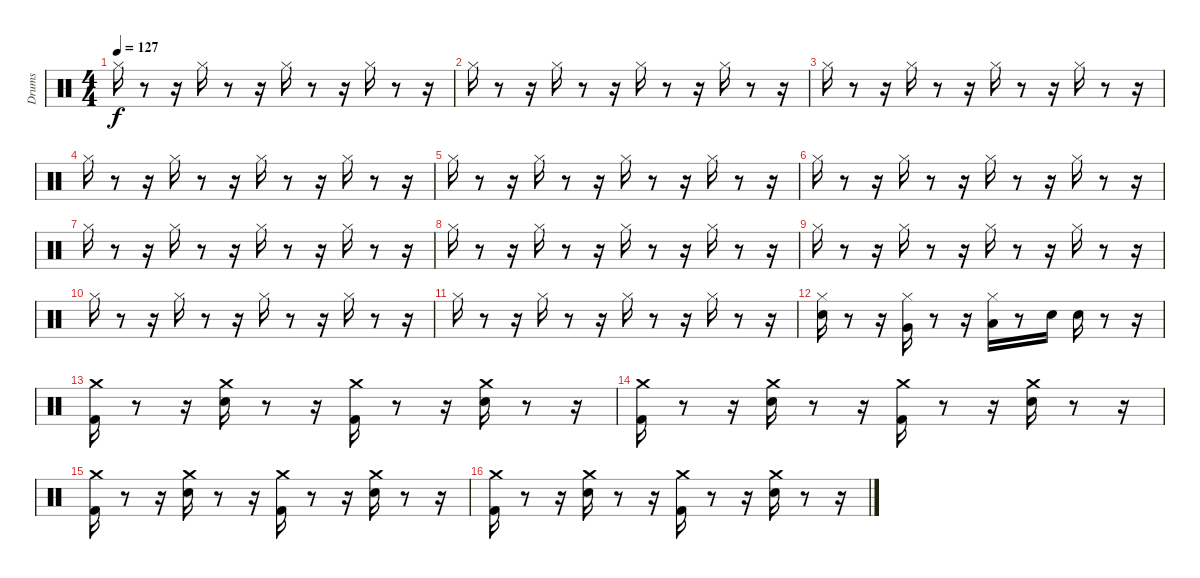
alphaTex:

\track ("Drums               " "Drums     ") {instrument percussion}
\staff {score}
\articulation defaults
\ts (4 4)
\tempo 127
\clef neutral
\ks c "Hi-Hat (closed)".16{dy f}
r.8 r.16 "Hi-Hat (closed)".16 r.8 r.16 "Hi-Hat (closed)".16 r.8 r.16 "Hi-Hat (closed)".16 r.8 r.16 |
"Hi-Hat (closed)".16 r.8 r.16 "Hi-Hat (closed)".16 r.8 r.16 "Hi-Hat (closed)".16 r.8 r.16 "Hi-Hat (closed)".16 r.8 r.16 |
"Hi-Hat (closed)".16 r.8 r.16 "Hi-Hat (closed)".16 r.8 r.16 "Hi-Hat (closed)".16 r.8 r.16 "Hi-Hat (closed)".16 r.8 r.16 |
"Hi-Hat (closed)".16 r.8 r.16 "Hi-Hat (closed)".16 r.8 r.16 "Hi-Hat (closed)".16 r.8 r.16 "Hi-Hat (closed)".16 r.8 r.16 |
"Hi-Hat (closed)".16 r.8 r.16 "Hi-Hat (closed)".16 r.8 r.16 "Hi-Hat (closed)".16 r.8 r.16 "Hi-Hat (closed)".16 r.8 r.16 |
"Hi-Hat (closed)".16 r.8 r.16 "Hi-Hat (closed)".16 r.8 r.16 "Hi-Hat (closed)".16 r.8 r.16 "Hi-Hat (closed)".16 r.8 r.16 |
"Hi-Hat (closed)".16 r.8 r.16 "Hi-Hat (closed)".16 r.8 r.16 "Hi-Hat (closed)".16 r.8 r.16 "Hi-Hat (closed)".16 r.8 r.16 |
"Hi-Hat (closed)".16 r.8 r.16 "Hi-Hat (closed)".16 r.8 r.16 "Hi-Hat (closed)".16 r.8 r.16 "Hi-Hat (closed)".16 r.8 r.16 |
"Hi-Hat (closed)".16 r.8 r.16 "Hi-Hat (closed)".16 r.8 r.16 "Hi-Hat (closed)".16 r.8 r.16 "Hi-Hat (closed)".16 r.8 r.16 |
"Hi-Hat (closed)".16 r.8 r.16 "Hi-Hat (closed)".16 r.8 r.16 "Hi-Hat (closed)".16 r.8 r.16 "Hi-Hat (closed)".16 r.8 r.16 |
"Hi-Hat (closed)".16 r.8 r.16 "Hi-Hat (closed)".16 r.8 r.16 "Hi-Hat (closed)".16 r.8 r.16 "Hi-Hat (closed)".16 r.8 r.16 |
("Hi-Hat (closed)" "Electric Snare (hit)").16 r.8 r.16 ("Hi-Hat (closed)" "Very Low Tom (hit)").16 r.8 r.16 ("Hi-Hat (closed)" "Low Tom (hit)").16 r.8 "Electric Snare (hit)".16 "Electric Snare (hit)".16 r.8 r.16 |
("Kick (hit) 2" "Crash medium (hit)").16 r.8 r.16 ("Electric Snare (hit)" "Crash medium (hit)").16 r.8 r.16 ("Kick (hit) 2" "Crash medium (hit)").16 r.8 r.16 ("Electric Snare (hit)" "Crash medium (hit)").16 r.8 r.16 |
("Kick (hit) 2" "Crash medium (hit)").16 r.8 r.16 ("Electric Snare (hit)" "Crash medium (hit)").16 r.8 r.16 ("Kick (hit) 2" "Crash medium (hit)").16 r.8 r.16 ("Electric Snare (hit)" "Crash medium (hit)").16 r.8 r.16 |
("Kick (hit) 2" "Crash medium (hit)").16 r.8 r.16 ("Electric Snare (hit)" "Crash medium (hit)").16 r.8 r.16 ("Kick (hit) 2" "Crash medium (hit)").16 r.8 r.16 ("Electric Snare (hit)" "Crash medium (hit)").16 r.8 r.16 |
("Kick (hit) 2" "Crash medium (hit)").16 r.8 r.16 ("Electric Snare (hit)" "Crash medium (hit)").16 r.8 r.16 ("Kick (hit) 2" "Crash medium (hit)").16 r.8 r.16 ("Electric Snare (hit)" "Crash medium (hit)").16 r.8 r.16
